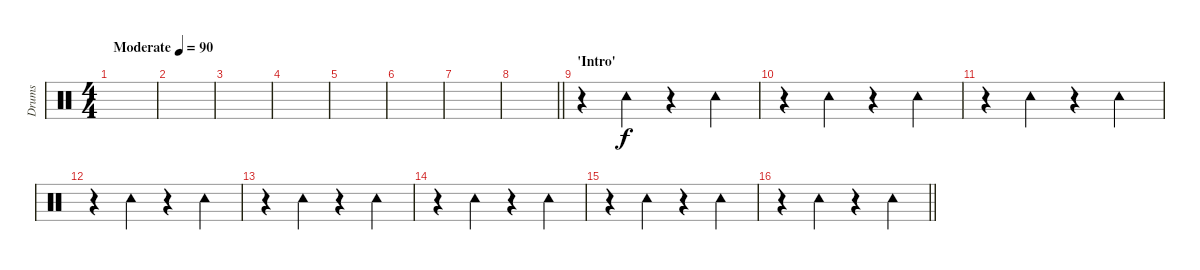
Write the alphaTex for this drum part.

\track ("Drums" "Drums") {instrument percussion}
\staff {score}
\articulation defaults
\ts (4 4)
\tempo (90 "Moderate")
\clef neutral
\ks c
|
|
|
|
|
|
|
\barLineRight lightlight
|
\section ("" "'Intro'")
r.4 "Tambourine (hit)".4 r.4 "Tambourine (hit)".4 |
r.4 "Tambourine (hit)".4 r.4 "Tambourine (hit)".4 |
r.4 "Tambourine (hit)".4 r.4 "Tambourine (hit)".4 |
r.4 "Tambourine (hit)".4 r.4 "Tambourine (hit)".4 |
r.4 "Tambourine (hit)".4 r.4 "Tambourine (hit)".4 |
r.4 "Tambourine (hit)".4 r.4 "Tambourine (hit)".4 |
r.4 "Tambourine (hit)".4 r.4 "Tambourine (hit)".4 |
\barLineRight lightlight
r.4 "Tambourine (hit)".4 r.4 "Tambourine (hit)".4
